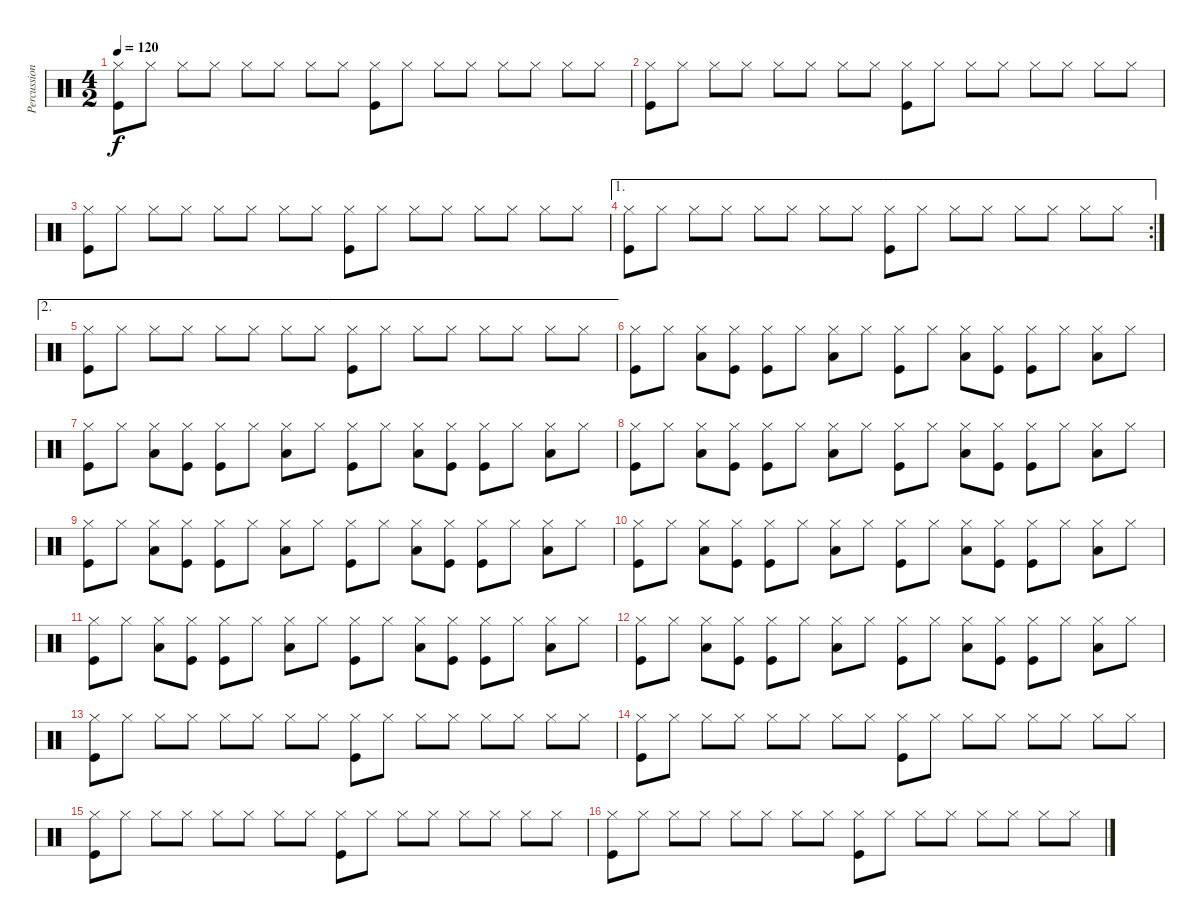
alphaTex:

\track ("Percussion" "Percussion") {instrument percussion}
\staff {score}
\articulation defaults
\ts (4 2)
\tempo 120
\clef neutral
\ks c
("Hi-Hat (closed)" "Kick (hit)").8{dy f} "Hi-Hat (closed)".8 "Hi-Hat (closed)".8 "Hi-Hat (closed)".8 "Hi-Hat (closed)".8 "Hi-Hat (closed)".8 "Hi-Hat (closed)".8 "Hi-Hat (closed)".8 ("Hi-Hat (closed)" "Kick (hit)").8 "Hi-Hat (closed)".8 "Hi-Hat (closed)".8 "Hi-Hat (closed)".8 "Hi-Hat (closed)".8 "Hi-Hat (closed)".8 "Hi-Hat (closed)".8 "Hi-Hat (closed)".8 |
("Hi-Hat (closed)" "Kick (hit)").8 "Hi-Hat (closed)".8 "Hi-Hat (closed)".8 "Hi-Hat (closed)".8 "Hi-Hat (closed)".8 "Hi-Hat (closed)".8 "Hi-Hat (closed)".8 "Hi-Hat (closed)".8 ("Hi-Hat (closed)" "Kick (hit)").8 "Hi-Hat (closed)".8 "Hi-Hat (closed)".8 "Hi-Hat (closed)".8 "Hi-Hat (closed)".8 "Hi-Hat (closed)".8 "Hi-Hat (closed)".8 "Hi-Hat (closed)".8 |
("Hi-Hat (closed)" "Kick (hit)").8 "Hi-Hat (closed)".8 "Hi-Hat (closed)".8 "Hi-Hat (closed)".8 "Hi-Hat (closed)".8 "Hi-Hat (closed)".8 "Hi-Hat (closed)".8 "Hi-Hat (closed)".8 ("Hi-Hat (closed)" "Kick (hit)").8 "Hi-Hat (closed)".8 "Hi-Hat (closed)".8 "Hi-Hat (closed)".8 "Hi-Hat (closed)".8 "Hi-Hat (closed)".8 "Hi-Hat (closed)".8 "Hi-Hat (closed)".8 |
\ae 1
\rc 2
("Hi-Hat (closed)" "Kick (hit)").8 "Hi-Hat (closed)".8 "Hi-Hat (closed)".8 "Hi-Hat (closed)".8 "Hi-Hat (closed)".8 "Hi-Hat (closed)".8 "Hi-Hat (closed)".8 "Hi-Hat (closed)".8 ("Hi-Hat (closed)" "Kick (hit)").8 "Hi-Hat (closed)".8 "Hi-Hat (closed)".8 "Hi-Hat (closed)".8 "Hi-Hat (closed)".8 "Hi-Hat (closed)".8 "Hi-Hat (closed)".8 "Hi-Hat (closed)".8 |
\ae 2
("Hi-Hat (closed)" "Kick (hit)").8 "Hi-Hat (closed)".8 "Hi-Hat (closed)".8 "Hi-Hat (closed)".8 "Hi-Hat (closed)".8 "Hi-Hat (closed)".8 "Hi-Hat (closed)".8 "Hi-Hat (closed)".8 ("Hi-Hat (closed)" "Kick (hit)").8 "Hi-Hat (closed)".8 "Hi-Hat (closed)".8 "Hi-Hat (closed)".8 "Hi-Hat (closed)".8 "Hi-Hat (closed)".8 "Hi-Hat (closed)".8 "Hi-Hat (closed)".8 |
("Hi-Hat (closed)" "Kick (hit)").8 "Hi-Hat (closed)".8 ("Hi-Hat (closed)" "Low Floor Tom (hit)").8 ("Hi-Hat (closed)" "Kick (hit)").8 ("Hi-Hat (closed)" "Kick (hit)").8 "Hi-Hat (closed)".8 ("Hi-Hat (closed)" "Low Floor Tom (hit)").8 "Hi-Hat (closed)".8 ("Hi-Hat (closed)" "Kick (hit)").8 "Hi-Hat (closed)".8 ("Hi-Hat (closed)" "Low Floor Tom (hit)").8 ("Hi-Hat (closed)" "Kick (hit)").8 ("Hi-Hat (closed)" "Kick (hit)").8 "Hi-Hat (closed)".8 ("Hi-Hat (closed)" "Low Floor Tom (hit)").8 "Hi-Hat (closed)".8 |
("Hi-Hat (closed)" "Kick (hit)").8 "Hi-Hat (closed)".8 ("Hi-Hat (closed)" "Low Floor Tom (hit)").8 ("Hi-Hat (closed)" "Kick (hit)").8 ("Hi-Hat (closed)" "Kick (hit)").8 "Hi-Hat (closed)".8 ("Hi-Hat (closed)" "Low Floor Tom (hit)").8 "Hi-Hat (closed)".8 ("Hi-Hat (closed)" "Kick (hit)").8 "Hi-Hat (closed)".8 ("Hi-Hat (closed)" "Low Floor Tom (hit)").8 ("Hi-Hat (closed)" "Kick (hit)").8 ("Hi-Hat (closed)" "Kick (hit)").8 "Hi-Hat (closed)".8 ("Hi-Hat (closed)" "Low Floor Tom (hit)").8 "Hi-Hat (closed)".8 |
("Hi-Hat (closed)" "Kick (hit)").8 "Hi-Hat (closed)".8 ("Hi-Hat (closed)" "Low Floor Tom (hit)").8 ("Hi-Hat (closed)" "Kick (hit)").8 ("Hi-Hat (closed)" "Kick (hit)").8 "Hi-Hat (closed)".8 ("Hi-Hat (closed)" "Low Floor Tom (hit)").8 "Hi-Hat (closed)".8 ("Hi-Hat (closed)" "Kick (hit)").8 "Hi-Hat (closed)".8 ("Hi-Hat (closed)" "Low Floor Tom (hit)").8 ("Hi-Hat (closed)" "Kick (hit)").8 ("Hi-Hat (closed)" "Kick (hit)").8 "Hi-Hat (closed)".8 ("Hi-Hat (closed)" "Low Floor Tom (hit)").8 "Hi-Hat (closed)".8 |
("Hi-Hat (closed)" "Kick (hit)").8 "Hi-Hat (closed)".8 ("Hi-Hat (closed)" "Low Floor Tom (hit)").8 ("Hi-Hat (closed)" "Kick (hit)").8 ("Hi-Hat (closed)" "Kick (hit)").8 "Hi-Hat (closed)".8 ("Hi-Hat (closed)" "Low Floor Tom (hit)").8 "Hi-Hat (closed)".8 ("Hi-Hat (closed)" "Kick (hit)").8 "Hi-Hat (closed)".8 ("Hi-Hat (closed)" "Low Floor Tom (hit)").8 ("Hi-Hat (closed)" "Kick (hit)").8 ("Hi-Hat (closed)" "Kick (hit)").8 "Hi-Hat (closed)".8 ("Hi-Hat (closed)" "Low Floor Tom (hit)").8 "Hi-Hat (closed)".8 |
("Hi-Hat (closed)" "Kick (hit)").8 "Hi-Hat (closed)".8 ("Hi-Hat (closed)" "Low Floor Tom (hit)").8 ("Hi-Hat (closed)" "Kick (hit)").8 ("Hi-Hat (closed)" "Kick (hit)").8 "Hi-Hat (closed)".8 ("Hi-Hat (closed)" "Low Floor Tom (hit)").8 "Hi-Hat (closed)".8 ("Hi-Hat (closed)" "Kick (hit)").8 "Hi-Hat (closed)".8 ("Hi-Hat (closed)" "Low Floor Tom (hit)").8 ("Hi-Hat (closed)" "Kick (hit)").8 ("Hi-Hat (closed)" "Kick (hit)").8 "Hi-Hat (closed)".8 ("Hi-Hat (closed)" "Low Floor Tom (hit)").8 "Hi-Hat (closed)".8 |
("Hi-Hat (closed)" "Kick (hit)").8 "Hi-Hat (closed)".8 ("Hi-Hat (closed)" "Low Floor Tom (hit)").8 ("Hi-Hat (closed)" "Kick (hit)").8 ("Hi-Hat (closed)" "Kick (hit)").8 "Hi-Hat (closed)".8 ("Hi-Hat (closed)" "Low Floor Tom (hit)").8 "Hi-Hat (closed)".8 ("Hi-Hat (closed)" "Kick (hit)").8 "Hi-Hat (closed)".8 ("Hi-Hat (closed)" "Low Floor Tom (hit)").8 ("Hi-Hat (closed)" "Kick (hit)").8 ("Hi-Hat (closed)" "Kick (hit)").8 "Hi-Hat (closed)".8 ("Hi-Hat (closed)" "Low Floor Tom (hit)").8 "Hi-Hat (closed)".8 |
("Hi-Hat (closed)" "Kick (hit)").8 "Hi-Hat (closed)".8 ("Hi-Hat (closed)" "Low Floor Tom (hit)").8 ("Hi-Hat (closed)" "Kick (hit)").8 ("Hi-Hat (closed)" "Kick (hit)").8 "Hi-Hat (closed)".8 ("Hi-Hat (closed)" "Low Floor Tom (hit)").8 "Hi-Hat (closed)".8 ("Hi-Hat (closed)" "Kick (hit)").8 "Hi-Hat (closed)".8 ("Hi-Hat (closed)" "Low Floor Tom (hit)").8 ("Hi-Hat (closed)" "Kick (hit)").8 ("Hi-Hat (closed)" "Kick (hit)").8 "Hi-Hat (closed)".8 ("Hi-Hat (closed)" "Low Floor Tom (hit)").8 "Hi-Hat (closed)".8 |
("Hi-Hat (closed)" "Kick (hit)").8 "Hi-Hat (closed)".8 "Hi-Hat (closed)".8 "Hi-Hat (closed)".8 "Hi-Hat (closed)".8 "Hi-Hat (closed)".8 "Hi-Hat (closed)".8 "Hi-Hat (closed)".8 ("Hi-Hat (closed)" "Kick (hit)").8 "Hi-Hat (closed)".8 "Hi-Hat (closed)".8 "Hi-Hat (closed)".8 "Hi-Hat (closed)".8 "Hi-Hat (closed)".8 "Hi-Hat (closed)".8 "Hi-Hat (closed)".8 |
("Hi-Hat (closed)" "Kick (hit)").8 "Hi-Hat (closed)".8 "Hi-Hat (closed)".8 "Hi-Hat (closed)".8 "Hi-Hat (closed)".8 "Hi-Hat (closed)".8 "Hi-Hat (closed)".8 "Hi-Hat (closed)".8 ("Hi-Hat (closed)" "Kick (hit)").8 "Hi-Hat (closed)".8 "Hi-Hat (closed)".8 "Hi-Hat (closed)".8 "Hi-Hat (closed)".8 "Hi-Hat (closed)".8 "Hi-Hat (closed)".8 "Hi-Hat (closed)".8 |
("Hi-Hat (closed)" "Kick (hit)").8 "Hi-Hat (closed)".8 "Hi-Hat (closed)".8 "Hi-Hat (closed)".8 "Hi-Hat (closed)".8 "Hi-Hat (closed)".8 "Hi-Hat (closed)".8 "Hi-Hat (closed)".8 ("Hi-Hat (closed)" "Kick (hit)").8 "Hi-Hat (closed)".8 "Hi-Hat (closed)".8 "Hi-Hat (closed)".8 "Hi-Hat (closed)".8 "Hi-Hat (closed)".8 "Hi-Hat (closed)".8 "Hi-Hat (closed)".8 |
("Hi-Hat (closed)" "Kick (hit)").8 "Hi-Hat (closed)".8 "Hi-Hat (closed)".8 "Hi-Hat (closed)".8 "Hi-Hat (closed)".8 "Hi-Hat (closed)".8 "Hi-Hat (closed)".8 "Hi-Hat (closed)".8 ("Hi-Hat (closed)" "Kick (hit)").8 "Hi-Hat (closed)".8 "Hi-Hat (closed)".8 "Hi-Hat (closed)".8 "Hi-Hat (closed)".8 "Hi-Hat (closed)".8 "Hi-Hat (closed)".8 "Hi-Hat (closed)".8
